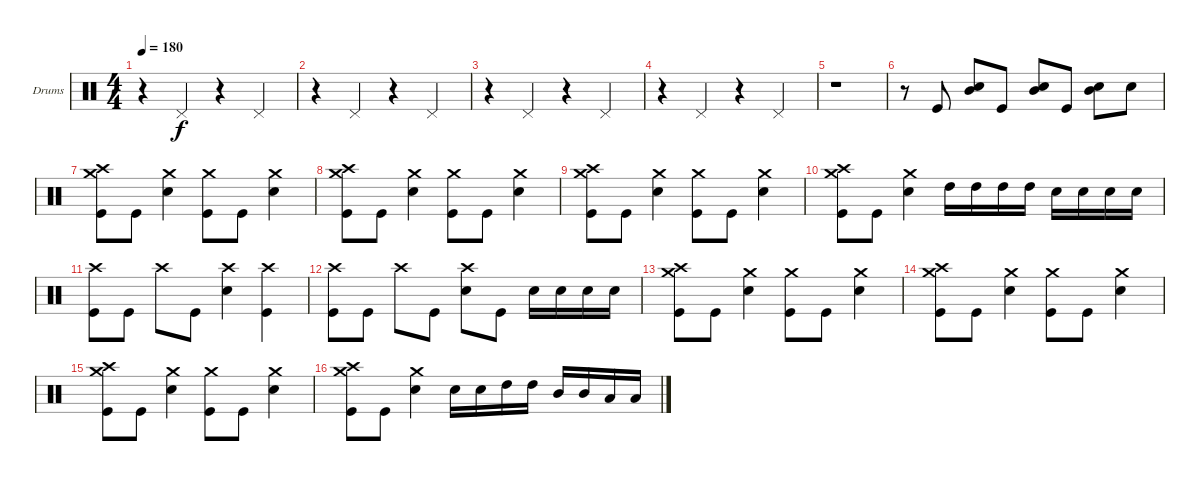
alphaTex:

\defaultSystemsLayout 4
\bracketExtendMode groupsimilarinstruments
\firstSystemTrackNameOrientation horizontal
\otherSystemsTrackNameOrientation horizontal
\track ("Барабаны" "Drums") {instrument percussion}
\staff {score}
\articulation defaults
\ts (4 4)
\tempo 180
\clef neutral
\scale
0.333333
\ks c
r.4{dy f} "Pedal Hi-Hat (hit)".4 r.4 "Pedal Hi-Hat (hit)".4 |
\scale
0.333333 r.4 "Pedal Hi-Hat (hit)".4 r.4 "Pedal Hi-Hat (hit)".4 |
\scale
0.333333 r.4 "Pedal Hi-Hat (hit)".4 r.4 "Pedal Hi-Hat (hit)".4 |
\scale
0.333333 r.4 "Pedal Hi-Hat (hit)".4 r.4 "Pedal Hi-Hat (hit)".4 |
\scale
0.333333 r.1 |
\scale
0.333333 r.8 "Kick (hit)".8 ("Mid Tom (hit)" "Snare (hit) 2").8 "Kick (hit)".8 ("Mid Tom (hit)" "Snare (hit) 2").8 "Kick (hit)".8 ("Mid Tom (hit)" "Snare (hit) 2").8 "Snare (hit) 2".8 |
\scale
0.333333 ("Crash high (hit)" "Crash medium (hit)" "Kick (hit)").8 "Kick (hit)".8 ("Crash medium (hit)" "Snare (hit) 2").4 ("Crash medium (hit)" "Kick (hit)").8 "Kick (hit)".8 ("Crash medium (hit)" "Snare (hit) 2").4 |
\scale
0.333333 ("Crash high (hit)" "Crash medium (hit)" "Kick (hit)").8 "Kick (hit)".8 ("Crash medium (hit)" "Snare (hit) 2").4 ("Crash medium (hit)" "Kick (hit)").8 "Kick (hit)".8 ("Crash medium (hit)" "Snare (hit) 2").4 |
\scale
0.333333 ("Crash high (hit)" "Crash medium (hit)" "Kick (hit)").8 "Kick (hit)".8 ("Crash medium (hit)" "Snare (hit) 2").4 ("Crash medium (hit)" "Kick (hit)").8 "Kick (hit)".8 ("Crash medium (hit)" "Snare (hit) 2").4 |
\scale
0.333333 ("Crash high (hit)" "Crash medium (hit)" "Kick (hit)").8 "Kick (hit)".8 ("Crash medium (hit)" "Snare (hit) 2").4 "High Tom (hit)".16 "High Tom (hit)".16 "High Tom (hit)".16 "High Tom (hit)".16 "Snare (hit) 2".16 "Snare (hit) 2".16 "Snare (hit) 2".16 "Snare (hit) 2".16 |
\scale
0.333333 ("Crash high (hit)" "Kick (hit)").8 "Kick (hit)".8 "Crash high (hit)".8 "Kick (hit)".8 ("Crash high (hit)" "Snare (hit) 2").4 ("Crash high (hit)" "Kick (hit)").4 |
\scale
0.333333 ("Crash high (hit)" "Kick (hit)").8 "Kick (hit)".8 "Crash high (hit)".8 "Kick (hit)".8 ("Crash high (hit)" "Snare (hit) 2").8 "Kick (hit)".8 "Snare (hit) 2".16 "Snare (hit) 2".16 "Snare (hit) 2".16 "Snare (hit) 2".16 |
\scale
0.333333 ("Crash high (hit)" "Crash medium (hit)" "Kick (hit)").8 "Kick (hit)".8 ("Crash medium (hit)" "Snare (hit) 2").4 ("Crash medium (hit)" "Kick (hit)").8 "Kick (hit)".8 ("Crash medium (hit)" "Snare (hit) 2").4 |
\scale
0.333333 ("Crash high (hit)" "Crash medium (hit)" "Kick (hit)").8 "Kick (hit)".8 ("Crash medium (hit)" "Snare (hit) 2").4 ("Crash medium (hit)" "Kick (hit)").8 "Kick (hit)".8 ("Crash medium (hit)" "Snare (hit) 2").4 |
\scale
0.333333 ("Crash high (hit)" "Crash medium (hit)" "Kick (hit)").8 "Kick (hit)".8 ("Crash medium (hit)" "Snare (hit) 2").4 ("Crash medium (hit)" "Kick (hit)").8 "Kick (hit)".8 ("Crash medium (hit)" "Snare (hit) 2").4 |
\scale
0.333333 ("Crash high (hit)" "Crash medium (hit)" "Kick (hit)").8 "Kick (hit)".8 ("Crash medium (hit)" "Snare (hit) 2").4 "Snare (hit) 2".16 "Snare (hit) 2".16 "High Tom (hit)".16 "High Tom (hit)".16 "Mid Tom (hit)".16 "Mid Tom (hit)".16 "Low Tom (hit)".16 "Low Tom (hit)".16
